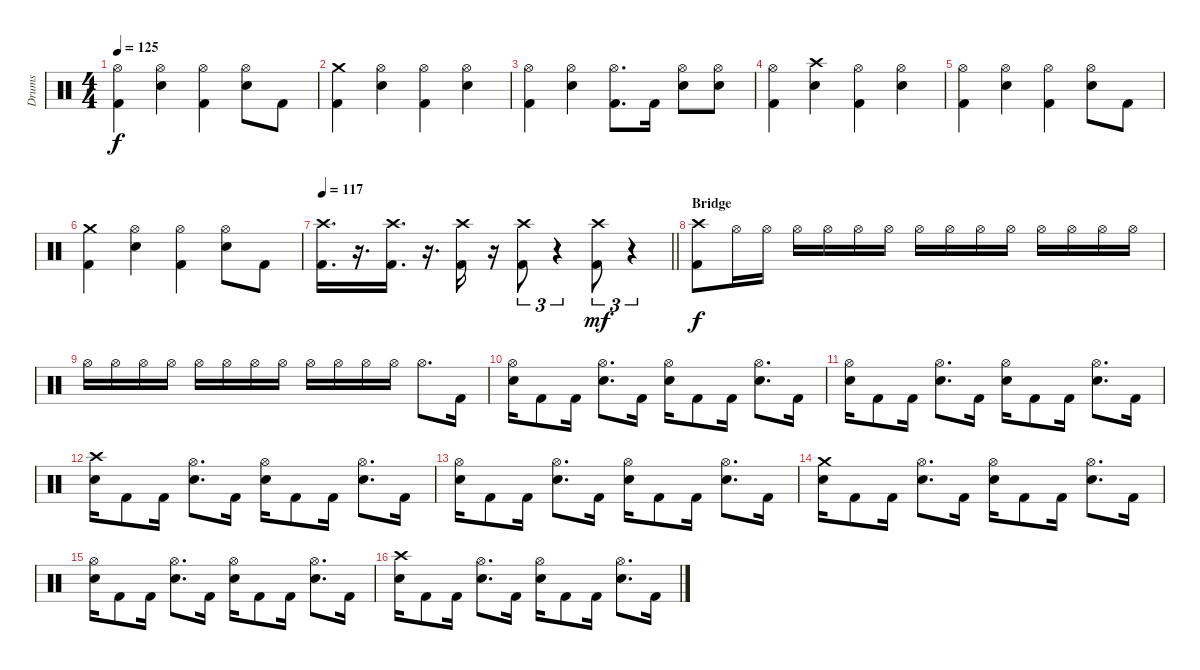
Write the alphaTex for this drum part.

\track ("Drums" "Drums") {instrument percussion}
\staff {score}
\articulation defaults
\ts (4 4)
\tempo 125
\clef neutral
\ks c
("Hi-Hat (open)" "Kick (hit) 2").4{dy f} ("Hi-Hat (open)" "Snare (hit) 2").4 ("Hi-Hat (open)" "Kick (hit) 2").4 ("Hi-Hat (open)" "Snare (hit) 2").8 "Kick (hit) 2".8 |
("Crash medium (hit)" "Kick (hit) 2").4 ("Hi-Hat (open)" "Snare (hit) 2").4 ("Hi-Hat (open)" "Kick (hit) 2").4 ("Hi-Hat (open)" "Snare (hit) 2").4 |
("Hi-Hat (open)" "Kick (hit) 2").4 ("Hi-Hat (open)" "Snare (hit) 2").4 ("Hi-Hat (open)" "Kick (hit) 2").8{d} "Kick (hit) 2".16 ("Hi-Hat (open)" "Snare (hit) 2").8 ("Hi-Hat (open)" "Snare (hit) 2").8 |
("Hi-Hat (open)" "Kick (hit) 2").4 ("Crash high (hit)" "Snare (hit) 2").4 ("Hi-Hat (open)" "Kick (hit) 2").4 ("Hi-Hat (open)" "Snare (hit) 2").4 |
("Hi-Hat (open)" "Kick (hit) 2").4 ("Hi-Hat (open)" "Snare (hit) 2").4 ("Hi-Hat (open)" "Kick (hit) 2").4 ("Hi-Hat (open)" "Snare (hit) 2").8 "Kick (hit) 2".8 |
("Crash medium (hit)" "Kick (hit) 2").4 ("Hi-Hat (open)" "Snare (hit) 2").4 ("Hi-Hat (open)" "Kick (hit) 2").4 ("Hi-Hat (open)" "Snare (hit) 2").8 "Kick (hit) 2".8 |
\tempo 117
\barLineRight lightlight
("Crash high (hit)" "Kick (hit) 2").16{d} r.16{d} ("Crash high (hit)" "Kick (hit) 2").16{d} r.16{d} ("Crash high (hit)" "Kick (hit) 2").16 r.16 ("Crash high (hit)" "Kick (hit) 2").8{tu (3 2)} r.4{tu (3 2)} ("Crash high (hit)" "Kick (hit) 2").8{tu (3 2) dy mf} r.4{tu (3 2)} |
\section ("" "Bridge")
("Crash high (hit)" "Kick (hit) 2").8{dy f} "Hi-Hat (open)".16 "Hi-Hat (open)".16 "Hi-Hat (open)".16 "Hi-Hat (open)".16 "Hi-Hat (open)".16 "Hi-Hat (open)".16 "Hi-Hat (open)".16 "Hi-Hat (open)".16 "Hi-Hat (open)".16 "Hi-Hat (open)".16 "Hi-Hat (open)".16 "Hi-Hat (open)".16 "Hi-Hat (open)".16 "Hi-Hat (open)".16 |
"Hi-Hat (open)".16 "Hi-Hat (open)".16 "Hi-Hat (open)".16 "Hi-Hat (open)".16 "Hi-Hat (open)".16 "Hi-Hat (open)".16 "Hi-Hat (open)".16 "Hi-Hat (open)".16 "Hi-Hat (open)".16 "Hi-Hat (open)".16 "Hi-Hat (open)".16 "Hi-Hat (open)".16 "Hi-Hat (open)".8{d} "Kick (hit) 2".16 |
("Hi-Hat (open)" "Snare (hit) 2").16 "Kick (hit) 2".8 "Kick (hit) 2".16 ("Hi-Hat (open)" "Snare (hit) 2").8{d} "Kick (hit) 2".16 ("Hi-Hat (open)" "Snare (hit) 2").16 "Kick (hit) 2".8 "Kick (hit) 2".16 ("Hi-Hat (open)" "Snare (hit) 2").8{d} "Kick (hit) 2".16 |
("Hi-Hat (open)" "Snare (hit) 2").16 "Kick (hit) 2".8 "Kick (hit) 2".16 ("Hi-Hat (open)" "Snare (hit) 2").8{d} "Kick (hit) 2".16 ("Hi-Hat (open)" "Snare (hit) 2").16 "Kick (hit) 2".8 "Kick (hit) 2".16 ("Hi-Hat (open)" "Snare (hit) 2").8{d} "Kick (hit) 2".16 |
("Crash high (hit)" "Snare (hit) 2").16 "Kick (hit) 2".8 "Kick (hit) 2".16 ("Hi-Hat (open)" "Snare (hit) 2").8{d} "Kick (hit) 2".16 ("Hi-Hat (open)" "Snare (hit) 2").16 "Kick (hit) 2".8 "Kick (hit) 2".16 ("Hi-Hat (open)" "Snare (hit) 2").8{d} "Kick (hit) 2".16 |
("Hi-Hat (open)" "Snare (hit) 2").16 "Kick (hit) 2".8 "Kick (hit) 2".16 ("Hi-Hat (open)" "Snare (hit) 2").8{d} "Kick (hit) 2".16 ("Hi-Hat (open)" "Snare (hit) 2").16 "Kick (hit) 2".8 "Kick (hit) 2".16 ("Hi-Hat (open)" "Snare (hit) 2").8{d} "Kick (hit) 2".16 |
("Crash medium (hit)" "Snare (hit) 2").16 "Kick (hit) 2".8 "Kick (hit) 2".16 ("Hi-Hat (open)" "Snare (hit) 2").8{d} "Kick (hit) 2".16 ("Hi-Hat (open)" "Snare (hit) 2").16 "Kick (hit) 2".8 "Kick (hit) 2".16 ("Hi-Hat (open)" "Snare (hit) 2").8{d} "Kick (hit) 2".16 |
("Hi-Hat (open)" "Snare (hit) 2").16 "Kick (hit) 2".8 "Kick (hit) 2".16 ("Hi-Hat (open)" "Snare (hit) 2").8{d} "Kick (hit) 2".16 ("Hi-Hat (open)" "Snare (hit) 2").16 "Kick (hit) 2".8 "Kick (hit) 2".16 ("Hi-Hat (open)" "Snare (hit) 2").8{d} "Kick (hit) 2".16 |
("Crash high (hit)" "Snare (hit) 2").16 "Kick (hit) 2".8 "Kick (hit) 2".16 ("Hi-Hat (open)" "Snare (hit) 2").8{d} "Kick (hit) 2".16 ("Hi-Hat (open)" "Snare (hit) 2").16 "Kick (hit) 2".8 "Kick (hit) 2".16 ("Hi-Hat (open)" "Snare (hit) 2").8{d} "Kick (hit) 2".16
